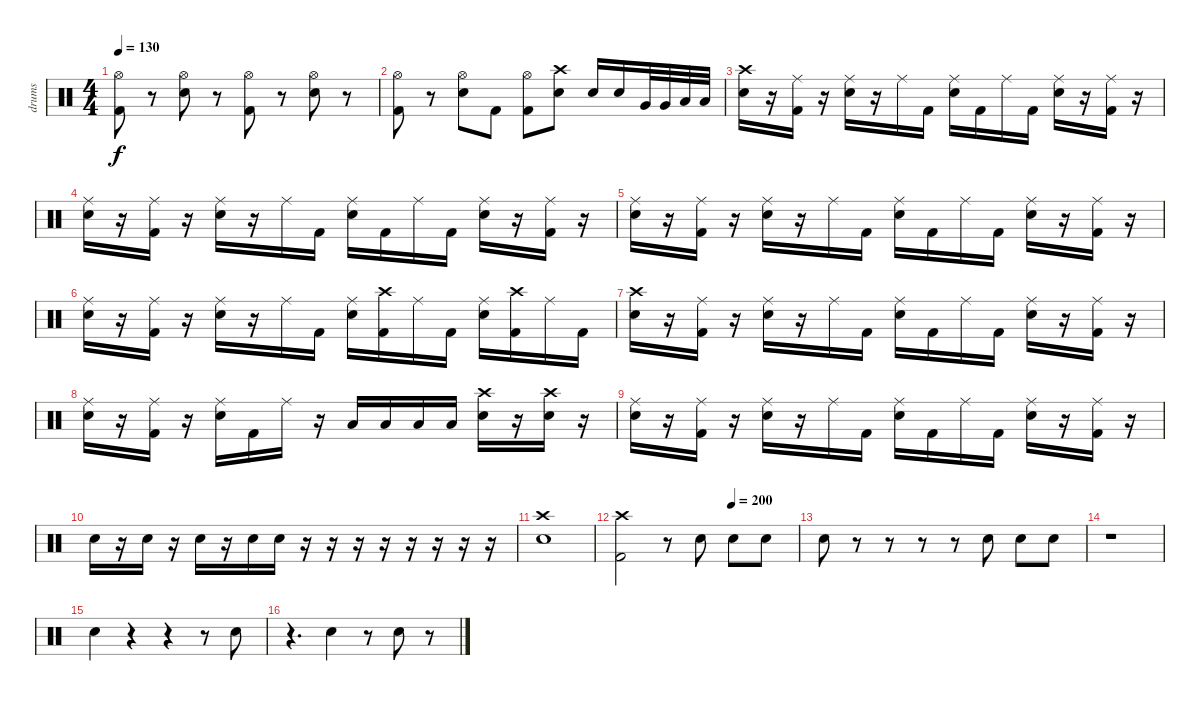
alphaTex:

\track ("drums" "drums") {instrument percussion}
\staff {score}
\articulation defaults
\ts (4 4)
\tempo 130
\clef neutral
\ks c
("Hi-Hat (open)" "Kick (hit) 2").8{dy f} r.8 ("Hi-Hat (open)" "Snare (hit) 2").8 r.8 ("Hi-Hat (open)" "Kick (hit) 2").8 r.8 ("Hi-Hat (open)" "Snare (hit) 2").8 r.8 |
("Hi-Hat (open)" "Kick (hit) 2").8 r.8 ("Hi-Hat (open)" "Snare (hit) 2").8 "Kick (hit) 2".8 ("Hi-Hat (open)" "Kick (hit) 2").8 ("Crash high (hit)" "Snare (hit) 2").8 "Snare (hit) 2".16 "Snare (hit) 2".16 "Very Low Tom (hit)".32 "Very Low Tom (hit)".32 "Low Floor Tom (hit)".32 "Low Floor Tom (hit)".32 |
("Crash high (hit)" "Snare (hit) 2").16 r.16 ("Ride (middle)" "Kick (hit) 2").16 r.16 ("Ride (middle)" "Snare (hit) 2").16 r.16 "Ride (middle)".16 "Kick (hit) 2".16 ("Ride (middle)" "Snare (hit) 2").16 "Kick (hit) 2".16 "Ride (middle)".16 "Kick (hit) 2".16 ("Ride (middle)" "Snare (hit) 2").16 r.16 ("Ride (middle)" "Kick (hit) 2").16 r.16 |
("Ride (middle)" "Snare (hit) 2").16 r.16 ("Ride (middle)" "Kick (hit) 2").16 r.16 ("Ride (middle)" "Snare (hit) 2").16 r.16 "Ride (middle)".16 "Kick (hit) 2".16 ("Ride (middle)" "Snare (hit) 2").16 "Kick (hit) 2".16 "Ride (middle)".16 "Kick (hit) 2".16 ("Ride (middle)" "Snare (hit) 2").16 r.16 ("Ride (middle)" "Kick (hit) 2").16 r.16 |
("Ride (middle)" "Snare (hit) 2").16 r.16 ("Ride (middle)" "Kick (hit) 2").16 r.16 ("Ride (middle)" "Snare (hit) 2").16 r.16 "Ride (middle)".16 "Kick (hit) 2".16 ("Ride (middle)" "Snare (hit) 2").16 "Kick (hit) 2".16 "Ride (middle)".16 "Kick (hit) 2".16 ("Ride (middle)" "Snare (hit) 2").16 r.16 ("Ride (middle)" "Kick (hit) 2").16 r.16 |
("Ride (middle)" "Snare (hit) 2").16 r.16 ("Ride (middle)" "Kick (hit) 2").16 r.16 ("Ride (middle)" "Snare (hit) 2").16 r.16 "Ride (middle)".16 "Kick (hit) 2".16 ("Ride (middle)" "Snare (hit) 2").16 ("Crash high (hit)" "Kick (hit) 2").16 "Ride (middle)".16 "Kick (hit) 2".16 ("Ride (middle)" "Snare (hit) 2").16 ("Crash high (hit)" "Kick (hit) 2").16 "Ride (middle)".16 "Kick (hit) 2".16 |
("Crash high (hit)" "Snare (hit) 2").16 r.16 ("Ride (middle)" "Kick (hit) 2").16 r.16 ("Ride (middle)" "Snare (hit) 2").16 r.16 "Ride (middle)".16 "Kick (hit) 2".16 ("Ride (middle)" "Snare (hit) 2").16 "Kick (hit) 2".16 "Ride (middle)".16 "Kick (hit) 2".16 ("Ride (middle)" "Snare (hit) 2").16 r.16 ("Ride (middle)" "Kick (hit) 2").16 r.16 |
("Ride (middle)" "Snare (hit) 2").16 r.16 ("Ride (middle)" "Kick (hit) 2").16 r.16 ("Ride (middle)" "Snare (hit) 2").16 "Kick (hit) 2".16 "Ride (middle)".16 r.16 "Low Tom (hit)".16 "Low Tom (hit)".16 "Low Tom (hit)".16 "Low Tom (hit)".16 ("Crash high (hit)" "Snare (hit) 2").16 r.16 ("Crash high (hit)" "Snare (hit) 2").16 r.16 |
("Ride (middle)" "Snare (hit) 2").16 r.16 ("Ride (middle)" "Kick (hit) 2").16 r.16 ("Ride (middle)" "Snare (hit) 2").16 r.16 "Ride (middle)".16 "Kick (hit) 2".16 ("Ride (middle)" "Snare (hit) 2").16 "Kick (hit) 2".16 "Ride (middle)".16 "Kick (hit) 2".16 ("Ride (middle)" "Snare (hit) 2").16 r.16 ("Ride (middle)" "Kick (hit) 2").16 r.16 |
"Snare (hit) 2".16 r.16 "Snare (hit) 2".16 r.16 "Snare (hit) 2".16 r.16 "Snare (hit) 2".16 "Snare (hit) 2".16 r.16 r.16 r.16 r.16 r.16 r.16 r.16 r.16 |
("Crash high (hit)" "Snare (hit) 2").1 |
\tempo (200 0.625)
("Crash high (hit)" "Kick (hit) 2").2 r.8 "Snare (hit) 2".8 "Snare (hit) 2".8 "Snare (hit) 2".8 |
"Snare (hit) 2".8 r.8 r.8 r.8 r.8 "Snare (hit) 2".8 "Snare (hit) 2".8 "Snare (hit) 2".8 |
r.1 |
"Snare (hit) 2".4 r.4 r.4 r.8 "Snare (hit) 2".8 |
r.4{d} "Snare (hit) 2".4 r.8 "Snare (hit) 2".8 r.8
